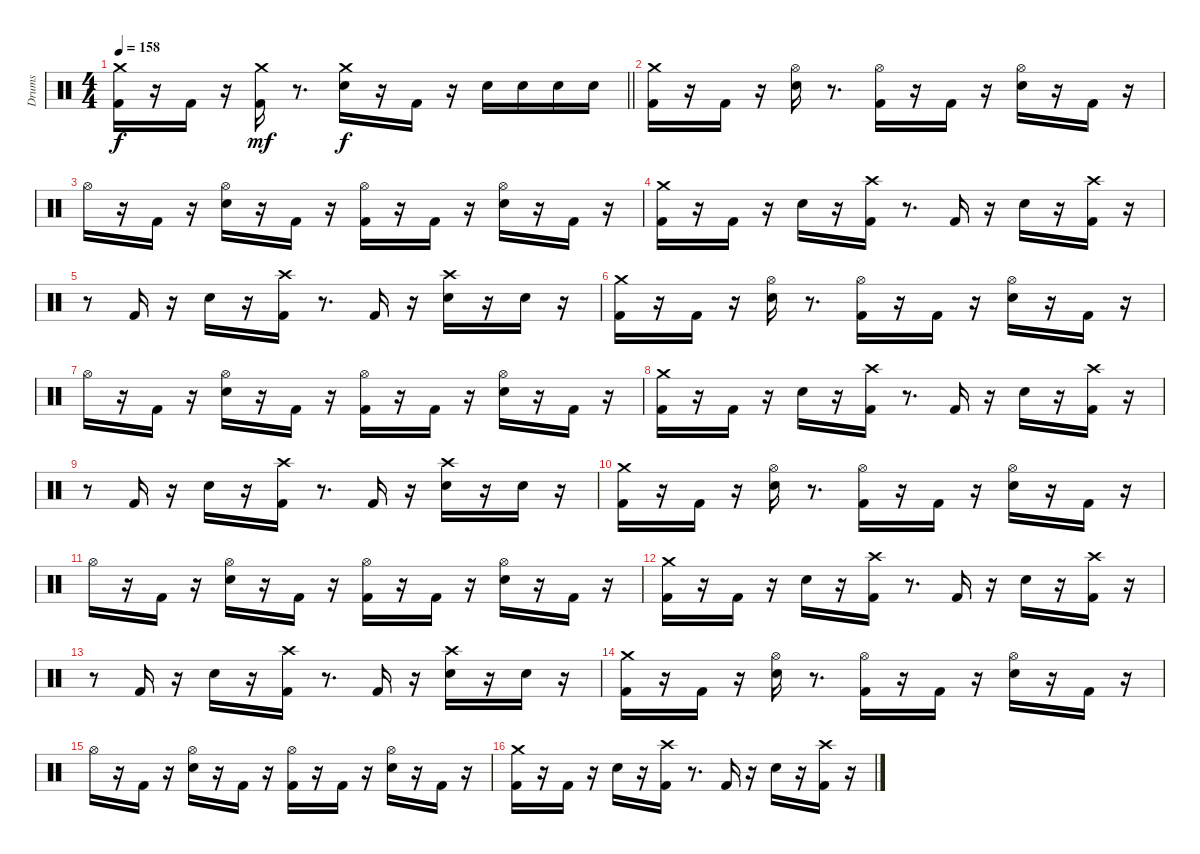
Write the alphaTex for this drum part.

\track ("Drums" "Drums") {instrument percussion}
\staff {score}
\articulation defaults
\ts (4 4)
\tempo 158
\clef neutral
\barLineRight lightlight
\ks c
("Kick (hit) 2" "Crash medium (hit)").16{dy f} r.16 "Kick (hit) 2".16 r.16 ("Kick (hit) 2" "Crash medium (hit)").16{dy mf} r.8{d} ("Snare (hit) 2" "Crash medium (hit)").16{dy f} r.16 "Kick (hit) 2".16 r.16 "Snare (hit) 2".16 "Snare (hit) 2".16 "Snare (hit) 2".16 "Snare (hit) 2".16 |
\section ("" " ")
("Kick (hit) 2" "Crash medium (hit)").16 r.16 "Kick (hit) 2".16 r.16 ("Snare (hit) 2" "Hi-Hat (open)").16 r.8{d} ("Kick (hit) 2" "Hi-Hat (open)").16 r.16 "Kick (hit) 2".16 r.16 ("Snare (hit) 2" "Hi-Hat (open)").16 r.16 "Kick (hit) 2".16 r.16 |
"Hi-Hat (open)".16 r.16 "Kick (hit) 2".16 r.16 ("Snare (hit) 2" "Hi-Hat (open)").16 r.16 "Kick (hit) 2".16 r.16 ("Kick (hit) 2" "Hi-Hat (open)").16 r.16 "Kick (hit) 2".16 r.16 ("Snare (hit) 2" "Hi-Hat (open)").16 r.16 "Kick (hit) 2".16 r.16 |
("Kick (hit) 2" "Crash medium (hit)").16 r.16 "Kick (hit) 2".16 r.16 "Snare (hit) 2".16 r.16 ("Kick (hit) 2" "Crash high (hit)").16 r.8{d} "Kick (hit) 2".16 r.16 "Snare (hit) 2".16 r.16 ("Kick (hit) 2" "Crash high (hit)").16 r.16 |
r.8 "Kick (hit) 2".16 r.16 "Snare (hit) 2".16 r.16 ("Kick (hit) 2" "Crash high (hit)").16 r.8{d} "Kick (hit) 2".16 r.16 ("Snare (hit) 2" "Crash high (hit)").16 r.16 "Snare (hit) 2".16 r.16 |
("Kick (hit) 2" "Crash medium (hit)").16 r.16 "Kick (hit) 2".16 r.16 ("Snare (hit) 2" "Hi-Hat (open)").16 r.8{d} ("Kick (hit) 2" "Hi-Hat (open)").16 r.16 "Kick (hit) 2".16 r.16 ("Snare (hit) 2" "Hi-Hat (open)").16 r.16 "Kick (hit) 2".16 r.16 |
"Hi-Hat (open)".16 r.16 "Kick (hit) 2".16 r.16 ("Snare (hit) 2" "Hi-Hat (open)").16 r.16 "Kick (hit) 2".16 r.16 ("Kick (hit) 2" "Hi-Hat (open)").16 r.16 "Kick (hit) 2".16 r.16 ("Snare (hit) 2" "Hi-Hat (open)").16 r.16 "Kick (hit) 2".16 r.16 |
("Kick (hit) 2" "Crash medium (hit)").16 r.16 "Kick (hit) 2".16 r.16 "Snare (hit) 2".16 r.16 ("Kick (hit) 2" "Crash high (hit)").16 r.8{d} "Kick (hit) 2".16 r.16 "Snare (hit) 2".16 r.16 ("Kick (hit) 2" "Crash high (hit)").16 r.16 |
r.8 "Kick (hit) 2".16 r.16 "Snare (hit) 2".16 r.16 ("Kick (hit) 2" "Crash high (hit)").16 r.8{d} "Kick (hit) 2".16 r.16 ("Snare (hit) 2" "Crash high (hit)").16 r.16 "Snare (hit) 2".16 r.16 |
("Kick (hit) 2" "Crash medium (hit)").16 r.16 "Kick (hit) 2".16 r.16 ("Snare (hit) 2" "Hi-Hat (open)").16 r.8{d} ("Kick (hit) 2" "Hi-Hat (open)").16 r.16 "Kick (hit) 2".16 r.16 ("Snare (hit) 2" "Hi-Hat (open)").16 r.16 "Kick (hit) 2".16 r.16 |
"Hi-Hat (open)".16 r.16 "Kick (hit) 2".16 r.16 ("Snare (hit) 2" "Hi-Hat (open)").16 r.16 "Kick (hit) 2".16 r.16 ("Kick (hit) 2" "Hi-Hat (open)").16 r.16 "Kick (hit) 2".16 r.16 ("Snare (hit) 2" "Hi-Hat (open)").16 r.16 "Kick (hit) 2".16 r.16 |
("Kick (hit) 2" "Crash medium (hit)").16 r.16 "Kick (hit) 2".16 r.16 "Snare (hit) 2".16 r.16 ("Kick (hit) 2" "Crash high (hit)").16 r.8{d} "Kick (hit) 2".16 r.16 "Snare (hit) 2".16 r.16 ("Kick (hit) 2" "Crash high (hit)").16 r.16 |
r.8 "Kick (hit) 2".16 r.16 "Snare (hit) 2".16 r.16 ("Kick (hit) 2" "Crash high (hit)").16 r.8{d} "Kick (hit) 2".16 r.16 ("Snare (hit) 2" "Crash high (hit)").16 r.16 "Snare (hit) 2".16 r.16 |
("Kick (hit) 2" "Crash medium (hit)").16 r.16 "Kick (hit) 2".16 r.16 ("Snare (hit) 2" "Hi-Hat (open)").16 r.8{d} ("Kick (hit) 2" "Hi-Hat (open)").16 r.16 "Kick (hit) 2".16 r.16 ("Snare (hit) 2" "Hi-Hat (open)").16 r.16 "Kick (hit) 2".16 r.16 |
"Hi-Hat (open)".16 r.16 "Kick (hit) 2".16 r.16 ("Snare (hit) 2" "Hi-Hat (open)").16 r.16 "Kick (hit) 2".16 r.16 ("Kick (hit) 2" "Hi-Hat (open)").16 r.16 "Kick (hit) 2".16 r.16 ("Snare (hit) 2" "Hi-Hat (open)").16 r.16 "Kick (hit) 2".16 r.16 |
("Kick (hit) 2" "Crash medium (hit)").16 r.16 "Kick (hit) 2".16 r.16 "Snare (hit) 2".16 r.16 ("Kick (hit) 2" "Crash high (hit)").16 r.8{d} "Kick (hit) 2".16 r.16 "Snare (hit) 2".16 r.16 ("Kick (hit) 2" "Crash high (hit)").16 r.16
